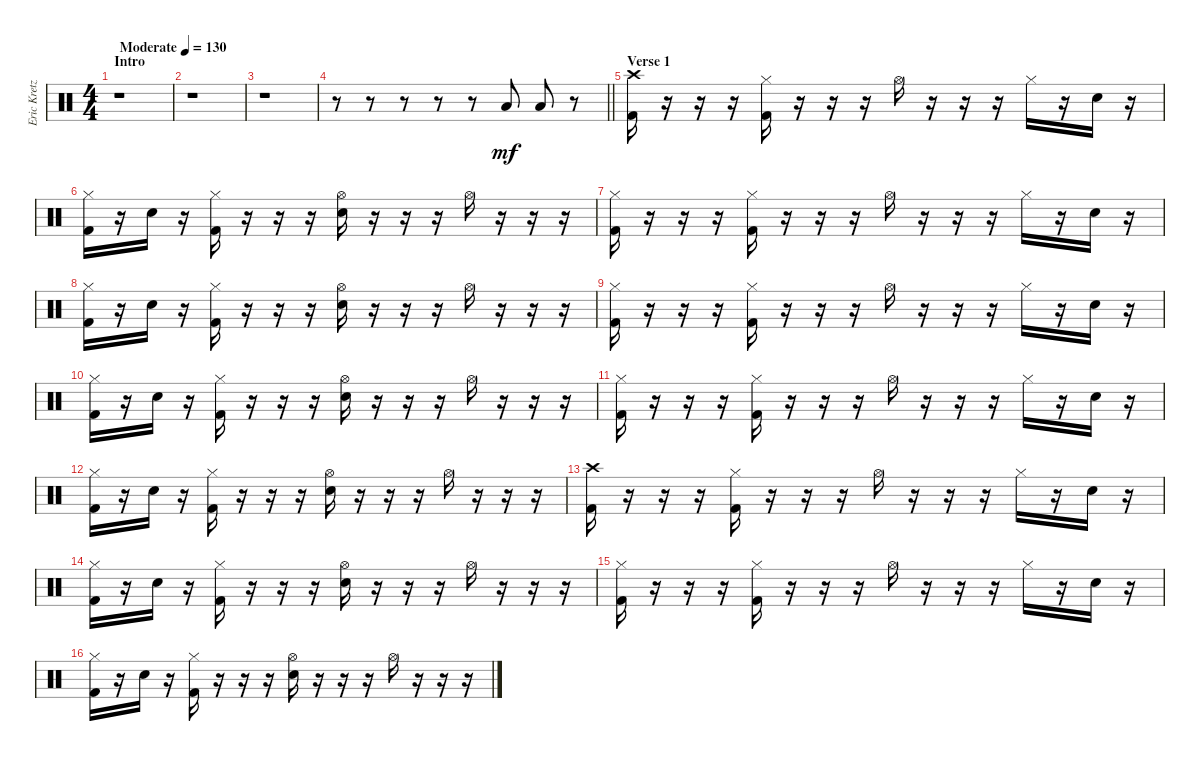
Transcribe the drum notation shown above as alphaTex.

\track ("Eric Kretz (Drums)" "Eric Kretz") {instrument percussion}
\staff {score}
\articulation defaults
\ts (4 4)
\section ("" "Intro")
\tempo (130 "Moderate")
\clef neutral
\ks c
r.1{dy mf} |
r.1 |
r.1 |
\barLineRight lightlight
r.8 r.8 r.8 r.8 r.8 "Low Tom (hit)".8 "Low Floor Tom (hit)".8 r.8 |
\section ("" "Verse 1")
("Crash high (hit)" "Kick (hit) 2").16 r.16 r.16 r.16 ("Hi-Hat (closed)" "Kick (hit) 2").16 r.16 r.16 r.16 "Hi-Hat (open)".16 r.16 r.16 r.16 "Hi-Hat (closed)".16 r.16 "Electric Snare (hit)".16 r.16 |
("Hi-Hat (closed)" "Kick (hit) 2").16 r.16 "Electric Snare (hit)".16 r.16 ("Hi-Hat (closed)" "Kick (hit) 2").16 r.16 r.16 r.16 ("Hi-Hat (open)" "Electric Snare (hit)").16 r.16 r.16 r.16 "Hi-Hat (open)".16 r.16 r.16 r.16 |
("Hi-Hat (closed)" "Kick (hit) 2").16 r.16 r.16 r.16 ("Hi-Hat (closed)" "Kick (hit) 2").16 r.16 r.16 r.16 "Hi-Hat (open)".16 r.16 r.16 r.16 "Hi-Hat (closed)".16 r.16 "Electric Snare (hit)".16 r.16 |
("Hi-Hat (closed)" "Kick (hit) 2").16 r.16 "Electric Snare (hit)".16 r.16 ("Hi-Hat (closed)" "Kick (hit) 2").16 r.16 r.16 r.16 ("Hi-Hat (open)" "Electric Snare (hit)").16 r.16 r.16 r.16 "Hi-Hat (open)".16 r.16 r.16 r.16 |
("Hi-Hat (closed)" "Kick (hit) 2").16 r.16 r.16 r.16 ("Hi-Hat (closed)" "Kick (hit) 2").16 r.16 r.16 r.16 "Hi-Hat (open)".16 r.16 r.16 r.16 "Hi-Hat (closed)".16 r.16 "Electric Snare (hit)".16 r.16 |
("Hi-Hat (closed)" "Kick (hit) 2").16 r.16 "Electric Snare (hit)".16 r.16 ("Hi-Hat (closed)" "Kick (hit) 2").16 r.16 r.16 r.16 ("Hi-Hat (open)" "Electric Snare (hit)").16 r.16 r.16 r.16 "Hi-Hat (open)".16 r.16 r.16 r.16 |
("Hi-Hat (closed)" "Kick (hit) 2").16 r.16 r.16 r.16 ("Hi-Hat (closed)" "Kick (hit) 2").16 r.16 r.16 r.16 "Hi-Hat (open)".16 r.16 r.16 r.16 "Hi-Hat (closed)".16 r.16 "Electric Snare (hit)".16 r.16 |
("Hi-Hat (closed)" "Kick (hit) 2").16 r.16 "Electric Snare (hit)".16 r.16 ("Hi-Hat (closed)" "Kick (hit) 2").16 r.16 r.16 r.16 ("Hi-Hat (open)" "Electric Snare (hit)").16 r.16 r.16 r.16 "Hi-Hat (open)".16 r.16 r.16 r.16 |
("Crash high (hit)" "Kick (hit) 2").16 r.16 r.16 r.16 ("Hi-Hat (closed)" "Kick (hit) 2").16 r.16 r.16 r.16 "Hi-Hat (open)".16 r.16 r.16 r.16 "Hi-Hat (closed)".16 r.16 "Electric Snare (hit)".16 r.16 |
("Hi-Hat (closed)" "Kick (hit) 2").16 r.16 "Electric Snare (hit)".16 r.16 ("Hi-Hat (closed)" "Kick (hit) 2").16 r.16 r.16 r.16 ("Hi-Hat (open)" "Electric Snare (hit)").16 r.16 r.16 r.16 "Hi-Hat (open)".16 r.16 r.16 r.16 |
("Hi-Hat (closed)" "Kick (hit) 2").16 r.16 r.16 r.16 ("Hi-Hat (closed)" "Kick (hit) 2").16 r.16 r.16 r.16 "Hi-Hat (open)".16 r.16 r.16 r.16 "Hi-Hat (closed)".16 r.16 "Electric Snare (hit)".16 r.16 |
("Hi-Hat (closed)" "Kick (hit) 2").16 r.16 "Electric Snare (hit)".16 r.16 ("Hi-Hat (closed)" "Kick (hit) 2").16 r.16 r.16 r.16 ("Hi-Hat (open)" "Electric Snare (hit)").16 r.16 r.16 r.16 "Hi-Hat (open)".16 r.16 r.16 r.16
